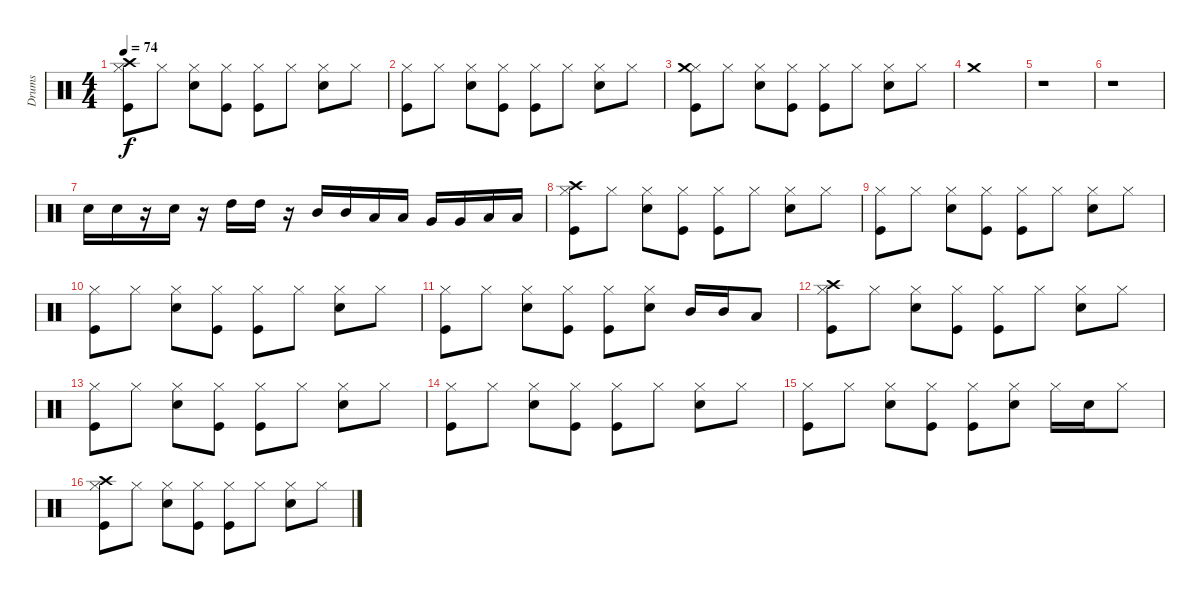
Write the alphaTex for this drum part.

\track ("Drums" "Drums") {instrument percussion}
\staff {score}
\articulation defaults
\ts (4 4)
\tempo 74
\clef neutral
\ks c
("Kick (hit)" "Hi-Hat (closed)" "Crash high (hit)").8{dy f} "Hi-Hat (closed)".8 ("Electric Snare (hit)" "Hi-Hat (closed)").8 ("Kick (hit)" "Hi-Hat (closed)").8 ("Kick (hit)" "Hi-Hat (closed)").8 "Hi-Hat (closed)".8 ("Electric Snare (hit)" "Hi-Hat (closed)").8 "Hi-Hat (closed)".8 |
("Kick (hit)" "Hi-Hat (closed)").8 "Hi-Hat (closed)".8 ("Electric Snare (hit)" "Hi-Hat (closed)").8 ("Kick (hit)" "Hi-Hat (closed)").8 ("Kick (hit)" "Hi-Hat (closed)").8 "Hi-Hat (closed)".8 ("Electric Snare (hit)" "Hi-Hat (closed)").8 "Hi-Hat (closed)".8 |
("Kick (hit)" "Hi-Hat (closed)" "Crash medium (hit)").8 "Hi-Hat (closed)".8 ("Electric Snare (hit)" "Hi-Hat (closed)").8 ("Kick (hit)" "Hi-Hat (closed)").8 ("Kick (hit)" "Hi-Hat (closed)").8 "Hi-Hat (closed)".8 ("Electric Snare (hit)" "Hi-Hat (closed)").8 "Hi-Hat (closed)".8 |
"Crash medium (hit)".1 |
r.1 |
r.1 |
"Electric Snare (hit)".16 "Electric Snare (hit)".16 r.16 "Electric Snare (hit)".16 r.16 "High Tom (hit)".16 "High Tom (hit)".16 r.16 "Mid Tom (hit)".16 "Mid Tom (hit)".16 "Low Tom (hit)".16 "Low Tom (hit)".16 "Very Low Tom (hit)".16 "Very Low Tom (hit)".16 "Low Floor Tom (hit)".16 "Low Floor Tom (hit)".16 |
("Kick (hit)" "Hi-Hat (closed)" "Crash high (hit)").8 "Hi-Hat (closed)".8 ("Electric Snare (hit)" "Hi-Hat (closed)").8 ("Kick (hit)" "Hi-Hat (closed)").8 ("Kick (hit)" "Hi-Hat (closed)").8 "Hi-Hat (closed)".8 ("Electric Snare (hit)" "Hi-Hat (closed)").8 "Hi-Hat (closed)".8 |
("Kick (hit)" "Hi-Hat (closed)").8 "Hi-Hat (closed)".8 ("Electric Snare (hit)" "Hi-Hat (closed)").8 ("Kick (hit)" "Hi-Hat (closed)").8 ("Kick (hit)" "Hi-Hat (closed)").8 "Hi-Hat (closed)".8 ("Electric Snare (hit)" "Hi-Hat (closed)").8 "Hi-Hat (closed)".8 |
("Kick (hit)" "Hi-Hat (closed)").8 "Hi-Hat (closed)".8 ("Electric Snare (hit)" "Hi-Hat (closed)").8 ("Kick (hit)" "Hi-Hat (closed)").8 ("Kick (hit)" "Hi-Hat (closed)").8 "Hi-Hat (closed)".8 ("Electric Snare (hit)" "Hi-Hat (closed)").8 "Hi-Hat (closed)".8 |
("Kick (hit)" "Hi-Hat (closed)").8 "Hi-Hat (closed)".8 ("Electric Snare (hit)" "Hi-Hat (closed)").8 ("Kick (hit)" "Hi-Hat (closed)").8 ("Kick (hit)" "Hi-Hat (closed)").8 ("Electric Snare (hit)" "Hi-Hat (closed)").8 "Mid Tom (hit)".16 "Mid Tom (hit)".16 "Low Tom (hit)".8 |
("Kick (hit)" "Hi-Hat (closed)" "Crash high (hit)").8 "Hi-Hat (closed)".8 ("Electric Snare (hit)" "Hi-Hat (closed)").8 ("Kick (hit)" "Hi-Hat (closed)").8 ("Kick (hit)" "Hi-Hat (closed)").8 "Hi-Hat (closed)".8 ("Electric Snare (hit)" "Hi-Hat (closed)").8 "Hi-Hat (closed)".8 |
("Kick (hit)" "Hi-Hat (closed)").8 "Hi-Hat (closed)".8 ("Electric Snare (hit)" "Hi-Hat (closed)").8 ("Kick (hit)" "Hi-Hat (closed)").8 ("Kick (hit)" "Hi-Hat (closed)").8 "Hi-Hat (closed)".8 ("Electric Snare (hit)" "Hi-Hat (closed)").8 "Hi-Hat (closed)".8 |
("Kick (hit)" "Hi-Hat (closed)").8 "Hi-Hat (closed)".8 ("Electric Snare (hit)" "Hi-Hat (closed)").8 ("Kick (hit)" "Hi-Hat (closed)").8 ("Kick (hit)" "Hi-Hat (closed)").8 "Hi-Hat (closed)".8 ("Electric Snare (hit)" "Hi-Hat (closed)").8 "Hi-Hat (closed)".8 |
("Kick (hit)" "Hi-Hat (closed)").8 "Hi-Hat (closed)".8 ("Electric Snare (hit)" "Hi-Hat (closed)").8 ("Kick (hit)" "Hi-Hat (closed)").8 ("Kick (hit)" "Hi-Hat (closed)").8 ("Electric Snare (hit)" "Hi-Hat (closed)").8 "Hi-Hat (closed)".16 "Electric Snare (hit)".16 "Hi-Hat (closed)".8 |
("Kick (hit)" "Hi-Hat (closed)" "Crash high (hit)").8 "Hi-Hat (closed)".8 ("Electric Snare (hit)" "Hi-Hat (closed)").8 ("Kick (hit)" "Hi-Hat (closed)").8 ("Kick (hit)" "Hi-Hat (closed)").8 "Hi-Hat (closed)".8 ("Electric Snare (hit)" "Hi-Hat (closed)").8 "Hi-Hat (closed)".8
